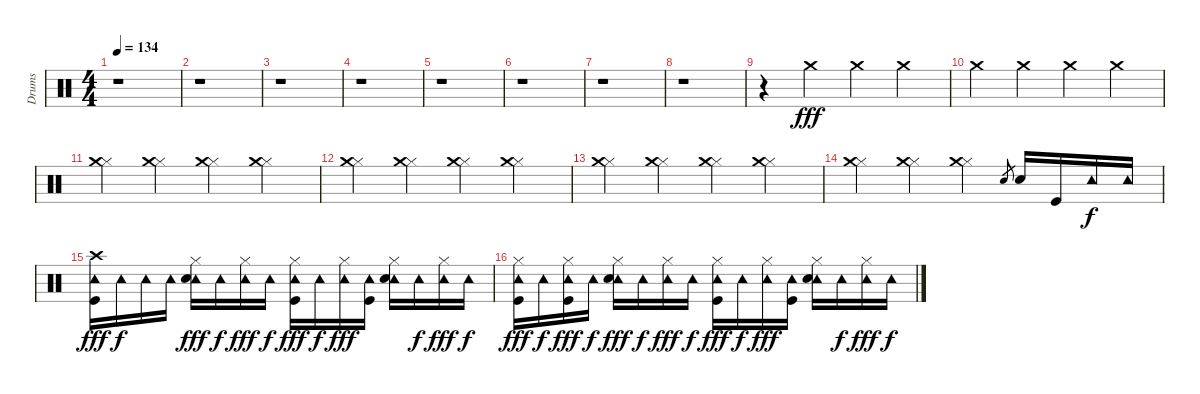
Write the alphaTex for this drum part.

\track ("Drums" "Drums") {instrument percussion}
\staff {score}
\articulation defaults
\ts (4 4)
\tempo 134
\clef neutral
\ks c
r.1{dy fff} |
r.1 |
r.1 |
r.1 |
r.1 |
r.1 |
r.1 |
r.1 |
r.4 "Crash medium (hit)".4 "Crash medium (hit)".4 "Crash medium (hit)".4 |
"Crash medium (hit)".4 "Crash medium (hit)".4 "Crash medium (hit)".4 "Crash medium (hit)".4 |
("Hi-Hat (closed)" "Crash medium (hit)").4 ("Hi-Hat (closed)" "Crash medium (hit)").4 ("Hi-Hat (closed)" "Crash medium (hit)").4 ("Hi-Hat (closed)" "Crash medium (hit)").4 |
("Hi-Hat (closed)" "Crash medium (hit)").4 ("Hi-Hat (closed)" "Crash medium (hit)").4 ("Hi-Hat (closed)" "Crash medium (hit)").4 ("Hi-Hat (closed)" "Crash medium (hit)").4 |
("Hi-Hat (closed)" "Crash medium (hit)").4 ("Hi-Hat (closed)" "Crash medium (hit)").4 ("Hi-Hat (closed)" "Crash medium (hit)").4 ("Hi-Hat (closed)" "Crash medium (hit)").4 |
("Hi-Hat (closed)" "Crash medium (hit)").4 ("Hi-Hat (closed)" "Crash medium (hit)").4 ("Hi-Hat (closed)" "Crash medium (hit)").4 "Snare (hit) 2".8{gr} "Snare (hit) 2".16 "Kick (hit)".16 "Tambourine (hit)".16{dy f} "Tambourine (hit)".16 |
("Crash high (hit)" "Tambourine (hit)" "Kick (hit)").16{dy fff} "Tambourine (hit)".16{dy f} "Tambourine (hit)".16 "Tambourine (hit)".16 ("Hi-Hat (closed)" "Tambourine (hit)" "Snare (hit) 2").16{dy fff} "Tambourine (hit)".16{dy f} ("Hi-Hat (closed)" "Tambourine (hit)").16{dy fff} "Tambourine (hit)".16{dy f} ("Hi-Hat (closed)" "Tambourine (hit)" "Kick (hit)").16{dy fff} "Tambourine (hit)".16{dy f} ("Hi-Hat (closed)" "Tambourine (hit)").16{dy fff} ("Tambourine (hit)" "Kick (hit)").16 ("Hi-Hat (closed)" "Tambourine (hit)" "Snare (hit) 2").16 "Tambourine (hit)".16{dy f} ("Hi-Hat (closed)" "Tambourine (hit)").16{dy fff} "Tambourine (hit)".16{dy f} |
("Hi-Hat (closed)" "Tambourine (hit)" "Kick (hit)").16{dy fff} "Tambourine (hit)".16{dy f} ("Hi-Hat (closed)" "Tambourine (hit)" "Kick (hit)").16{dy fff} "Tambourine (hit)".16{dy f} ("Hi-Hat (closed)" "Tambourine (hit)" "Snare (hit) 2").16{dy fff} "Tambourine (hit)".16{dy f} ("Hi-Hat (closed)" "Tambourine (hit)").16{dy fff} "Tambourine (hit)".16{dy f} ("Hi-Hat (closed)" "Tambourine (hit)" "Kick (hit)").16{dy fff} "Tambourine (hit)".16{dy f} ("Hi-Hat (closed)" "Tambourine (hit)").16{dy fff} ("Tambourine (hit)" "Kick (hit)").16 ("Hi-Hat (closed)" "Tambourine (hit)" "Snare (hit) 2").16 "Tambourine (hit)".16{dy f} ("Hi-Hat (closed)" "Tambourine (hit)").16{dy fff} "Tambourine (hit)".16{dy f}
